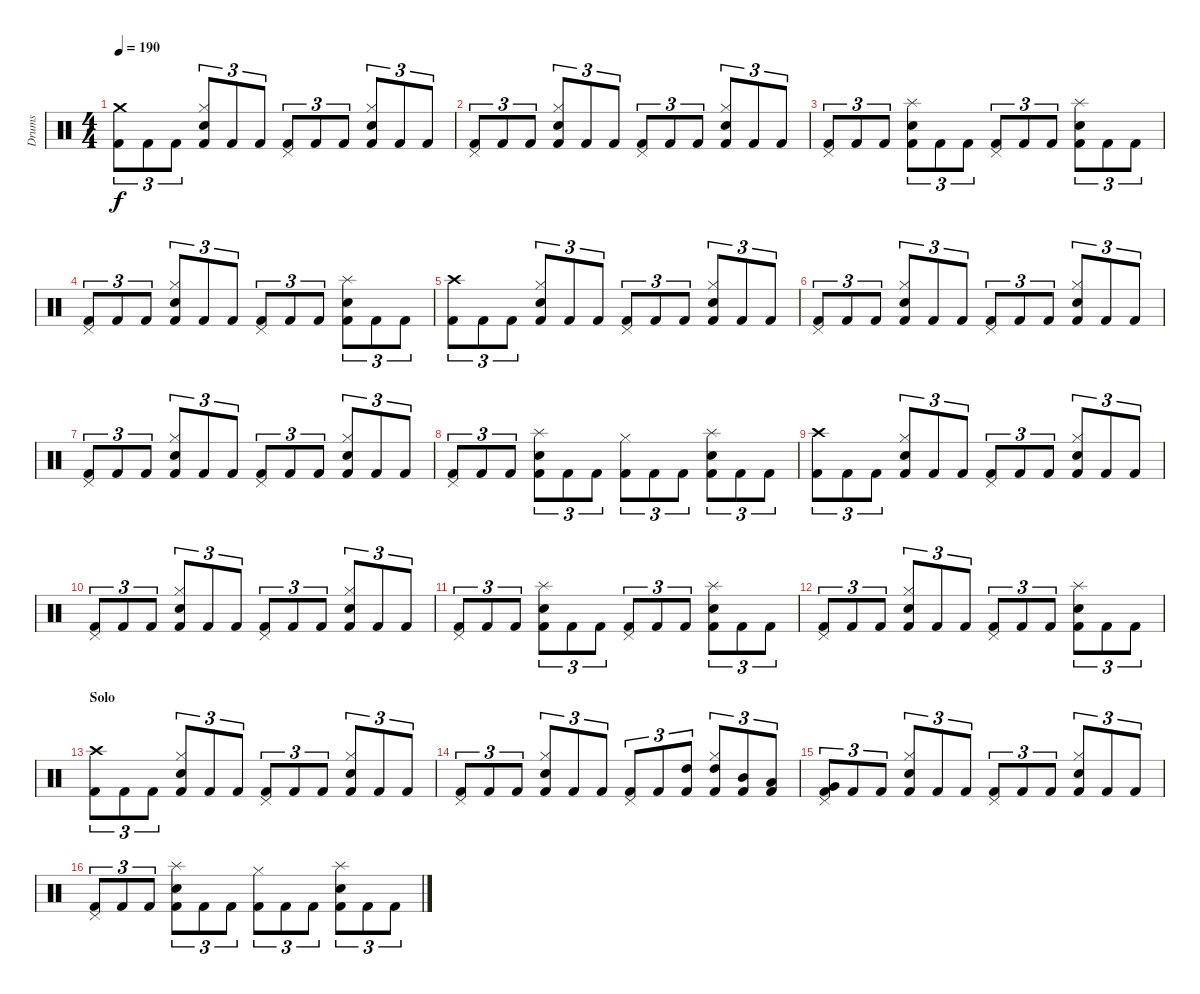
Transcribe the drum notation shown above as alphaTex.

\track ("Drums" "Drums") {instrument percussion}
\staff {score}
\articulation defaults
\ts (4 4)
\tempo 190
\clef neutral
\ks c
("Crash medium (hit)" "Kick (hit) 2").8{tu (3 2) dy f} "Kick (hit) 2".8{tu (3 2)} "Kick (hit) 2".8{tu (3 2)} ("Hi-Hat (closed)" "Snare (hit) 2" "Kick (hit) 2").8{tu (3 2)} "Kick (hit) 2".8{tu (3 2)} "Kick (hit) 2".8{tu (3 2)} ("Pedal Hi-Hat (hit)" "Kick (hit) 2").8{tu (3 2)} "Kick (hit) 2".8{tu (3 2)} "Kick (hit) 2".8{tu (3 2)} ("Hi-Hat (closed)" "Snare (hit) 2" "Kick (hit) 2").8{tu (3 2)} "Kick (hit) 2".8{tu (3 2)} "Kick (hit) 2".8{tu (3 2)} |
("Pedal Hi-Hat (hit)" "Kick (hit) 2").8{tu (3 2)} "Kick (hit) 2".8{tu (3 2)} "Kick (hit) 2".8{tu (3 2)} ("Hi-Hat (closed)" "Snare (hit) 2" "Kick (hit) 2").8{tu (3 2)} "Kick (hit) 2".8{tu (3 2)} "Kick (hit) 2".8{tu (3 2)} ("Pedal Hi-Hat (hit)" "Kick (hit) 2").8{tu (3 2)} "Kick (hit) 2".8{tu (3 2)} "Kick (hit) 2".8{tu (3 2)} ("Hi-Hat (closed)" "Snare (hit) 2" "Kick (hit) 2").8{tu (3 2)} "Kick (hit) 2".8{tu (3 2)} "Kick (hit) 2".8{tu (3 2)} |
("Pedal Hi-Hat (hit)" "Kick (hit) 2").8{tu (3 2)} "Kick (hit) 2".8{tu (3 2)} "Kick (hit) 2".8{tu (3 2)} ("Splash (hit)" "Snare (hit) 2" "Kick (hit) 2").8{tu (3 2)} "Kick (hit) 2".8{tu (3 2)} "Kick (hit) 2".8{tu (3 2)} ("Pedal Hi-Hat (hit)" "Kick (hit) 2").8{tu (3 2)} "Kick (hit) 2".8{tu (3 2)} "Kick (hit) 2".8{tu (3 2)} ("Splash (hit)" "Snare (hit) 2" "Kick (hit) 2").8{tu (3 2)} "Kick (hit) 2".8{tu (3 2)} "Kick (hit) 2".8{tu (3 2)} |
("Pedal Hi-Hat (hit)" "Kick (hit) 2").8{tu (3 2)} "Kick (hit) 2".8{tu (3 2)} "Kick (hit) 2".8{tu (3 2)} ("Hi-Hat (closed)" "Snare (hit) 2" "Kick (hit) 2").8{tu (3 2)} "Kick (hit) 2".8{tu (3 2)} "Kick (hit) 2".8{tu (3 2)} ("Pedal Hi-Hat (hit)" "Kick (hit) 2").8{tu (3 2)} "Kick (hit) 2".8{tu (3 2)} "Kick (hit) 2".8{tu (3 2)} ("Splash (hit)" "Snare (hit) 2" "Kick (hit) 2").8{tu (3 2)} "Kick (hit) 2".8{tu (3 2)} "Kick (hit) 2".8{tu (3 2)} |
("Crash high (hit)" "Kick (hit) 2").8{tu (3 2)} "Kick (hit) 2".8{tu (3 2)} "Kick (hit) 2".8{tu (3 2)} ("Hi-Hat (closed)" "Snare (hit) 2" "Kick (hit) 2").8{tu (3 2)} "Kick (hit) 2".8{tu (3 2)} "Kick (hit) 2".8{tu (3 2)} ("Pedal Hi-Hat (hit)" "Kick (hit) 2").8{tu (3 2)} "Kick (hit) 2".8{tu (3 2)} "Kick (hit) 2".8{tu (3 2)} ("Hi-Hat (closed)" "Snare (hit) 2" "Kick (hit) 2").8{tu (3 2)} "Kick (hit) 2".8{tu (3 2)} "Kick (hit) 2".8{tu (3 2)} |
("Pedal Hi-Hat (hit)" "Kick (hit) 2").8{tu (3 2)} "Kick (hit) 2".8{tu (3 2)} "Kick (hit) 2".8{tu (3 2)} ("Hi-Hat (closed)" "Snare (hit) 2" "Kick (hit) 2").8{tu (3 2)} "Kick (hit) 2".8{tu (3 2)} "Kick (hit) 2".8{tu (3 2)} ("Pedal Hi-Hat (hit)" "Kick (hit) 2").8{tu (3 2)} "Kick (hit) 2".8{tu (3 2)} "Kick (hit) 2".8{tu (3 2)} ("Hi-Hat (closed)" "Snare (hit) 2" "Kick (hit) 2").8{tu (3 2)} "Kick (hit) 2".8{tu (3 2)} "Kick (hit) 2".8{tu (3 2)} |
("Pedal Hi-Hat (hit)" "Kick (hit) 2").8{tu (3 2)} "Kick (hit) 2".8{tu (3 2)} "Kick (hit) 2".8{tu (3 2)} ("Hi-Hat (closed)" "Snare (hit) 2" "Kick (hit) 2").8{tu (3 2)} "Kick (hit) 2".8{tu (3 2)} "Kick (hit) 2".8{tu (3 2)} ("Pedal Hi-Hat (hit)" "Kick (hit) 2").8{tu (3 2)} "Kick (hit) 2".8{tu (3 2)} "Kick (hit) 2".8{tu (3 2)} ("Hi-Hat (closed)" "Snare (hit) 2" "Kick (hit) 2").8{tu (3 2)} "Kick (hit) 2".8{tu (3 2)} "Kick (hit) 2".8{tu (3 2)} |
("Pedal Hi-Hat (hit)" "Kick (hit) 2").8{tu (3 2)} "Kick (hit) 2".8{tu (3 2)} "Kick (hit) 2".8{tu (3 2)} ("Splash (hit)" "Snare (hit) 2" "Kick (hit) 2").8{tu (3 2)} "Kick (hit) 2".8{tu (3 2)} "Kick (hit) 2".8{tu (3 2)} ("Hi-Hat (closed)" "Kick (hit) 2").8{tu (3 2)} "Kick (hit) 2".8{tu (3 2)} "Kick (hit) 2".8{tu (3 2)} ("Splash (hit)" "Snare (hit) 2" "Kick (hit) 2").8{tu (3 2)} "Kick (hit) 2".8{tu (3 2)} "Kick (hit) 2".8{tu (3 2)} |
("Crash high (hit)" "Kick (hit) 2").8{tu (3 2)} "Kick (hit) 2".8{tu (3 2)} "Kick (hit) 2".8{tu (3 2)} ("Hi-Hat (closed)" "Snare (hit) 2" "Kick (hit) 2").8{tu (3 2)} "Kick (hit) 2".8{tu (3 2)} "Kick (hit) 2".8{tu (3 2)} ("Pedal Hi-Hat (hit)" "Kick (hit) 2").8{tu (3 2)} "Kick (hit) 2".8{tu (3 2)} "Kick (hit) 2".8{tu (3 2)} ("Hi-Hat (closed)" "Snare (hit) 2" "Kick (hit) 2").8{tu (3 2)} "Kick (hit) 2".8{tu (3 2)} "Kick (hit) 2".8{tu (3 2)} |
("Pedal Hi-Hat (hit)" "Kick (hit) 2").8{tu (3 2)} "Kick (hit) 2".8{tu (3 2)} "Kick (hit) 2".8{tu (3 2)} ("Hi-Hat (closed)" "Snare (hit) 2" "Kick (hit) 2").8{tu (3 2)} "Kick (hit) 2".8{tu (3 2)} "Kick (hit) 2".8{tu (3 2)} ("Pedal Hi-Hat (hit)" "Kick (hit) 2").8{tu (3 2)} "Kick (hit) 2".8{tu (3 2)} "Kick (hit) 2".8{tu (3 2)} ("Hi-Hat (closed)" "Snare (hit) 2" "Kick (hit) 2").8{tu (3 2)} "Kick (hit) 2".8{tu (3 2)} "Kick (hit) 2".8{tu (3 2)} |
("Pedal Hi-Hat (hit)" "Kick (hit) 2").8{tu (3 2)} "Kick (hit) 2".8{tu (3 2)} "Kick (hit) 2".8{tu (3 2)} ("Splash (hit)" "Snare (hit) 2" "Kick (hit) 2").8{tu (3 2)} "Kick (hit) 2".8{tu (3 2)} "Kick (hit) 2".8{tu (3 2)} ("Pedal Hi-Hat (hit)" "Kick (hit) 2").8{tu (3 2)} "Kick (hit) 2".8{tu (3 2)} "Kick (hit) 2".8{tu (3 2)} ("Splash (hit)" "Snare (hit) 2" "Kick (hit) 2").8{tu (3 2)} "Kick (hit) 2".8{tu (3 2)} "Kick (hit) 2".8{tu (3 2)} |
("Pedal Hi-Hat (hit)" "Kick (hit) 2").8{tu (3 2)} "Kick (hit) 2".8{tu (3 2)} "Kick (hit) 2".8{tu (3 2)} ("Hi-Hat (closed)" "Snare (hit) 2" "Kick (hit) 2").8{tu (3 2)} "Kick (hit) 2".8{tu (3 2)} "Kick (hit) 2".8{tu (3 2)} ("Pedal Hi-Hat (hit)" "Kick (hit) 2").8{tu (3 2)} "Kick (hit) 2".8{tu (3 2)} "Kick (hit) 2".8{tu (3 2)} ("Splash (hit)" "Snare (hit) 2" "Kick (hit) 2").8{tu (3 2)} "Kick (hit) 2".8{tu (3 2)} "Kick (hit) 2".8{tu (3 2)} |
\section ("" "Solo")
("Crash high (hit)" "Kick (hit) 2").8{tu (3 2)} "Kick (hit) 2".8{tu (3 2)} "Kick (hit) 2".8{tu (3 2)} ("Hi-Hat (closed)" "Snare (hit) 2" "Kick (hit) 2").8{tu (3 2)} "Kick (hit) 2".8{tu (3 2)} "Kick (hit) 2".8{tu (3 2)} ("Pedal Hi-Hat (hit)" "Kick (hit) 2").8{tu (3 2)} "Kick (hit) 2".8{tu (3 2)} "Kick (hit) 2".8{tu (3 2)} ("Hi-Hat (closed)" "Snare (hit) 2" "Kick (hit) 2").8{tu (3 2)} "Kick (hit) 2".8{tu (3 2)} "Kick (hit) 2".8{tu (3 2)} |
("Pedal Hi-Hat (hit)" "Kick (hit) 2").8{tu (3 2)} "Kick (hit) 2".8{tu (3 2)} "Kick (hit) 2".8{tu (3 2)} ("Hi-Hat (closed)" "Snare (hit) 2" "Kick (hit) 2").8{tu (3 2)} "Kick (hit) 2".8{tu (3 2)} "Kick (hit) 2".8{tu (3 2)} ("Pedal Hi-Hat (hit)" "Kick (hit) 2").8{tu (3 2)} "Kick (hit) 2".8{tu (3 2)} ("High Tom (hit)" "Kick (hit) 2").8{tu (3 2)} ("Hi-Hat (closed)" "High Tom (hit)" "Kick (hit) 2").8{tu (3 2)} ("Mid Tom (hit)" "Kick (hit) 2").8{tu (3 2)} ("Low Tom (hit)" "Kick (hit) 2").8{tu (3 2)} |
("Pedal Hi-Hat (hit)" "Very Low Tom (hit)" "Kick (hit) 2").8{tu (3 2)} "Kick (hit) 2".8{tu (3 2)} "Kick (hit) 2".8{tu (3 2)} ("Hi-Hat (closed)" "Snare (hit) 2" "Kick (hit) 2").8{tu (3 2)} "Kick (hit) 2".8{tu (3 2)} "Kick (hit) 2".8{tu (3 2)} ("Pedal Hi-Hat (hit)" "Kick (hit) 2").8{tu (3 2)} "Kick (hit) 2".8{tu (3 2)} "Kick (hit) 2".8{tu (3 2)} ("Hi-Hat (closed)" "Snare (hit) 2" "Kick (hit) 2").8{tu (3 2)} "Kick (hit) 2".8{tu (3 2)} "Kick (hit) 2".8{tu (3 2)} |
("Pedal Hi-Hat (hit)" "Kick (hit) 2").8{tu (3 2)} "Kick (hit) 2".8{tu (3 2)} "Kick (hit) 2".8{tu (3 2)} ("Splash (hit)" "Snare (hit) 2" "Kick (hit) 2").8{tu (3 2)} "Kick (hit) 2".8{tu (3 2)} "Kick (hit) 2".8{tu (3 2)} ("Hi-Hat (closed)" "Kick (hit) 2").8{tu (3 2)} "Kick (hit) 2".8{tu (3 2)} "Kick (hit) 2".8{tu (3 2)} ("Splash (hit)" "Snare (hit) 2" "Kick (hit) 2").8{tu (3 2)} "Kick (hit) 2".8{tu (3 2)} "Kick (hit) 2".8{tu (3 2)}
